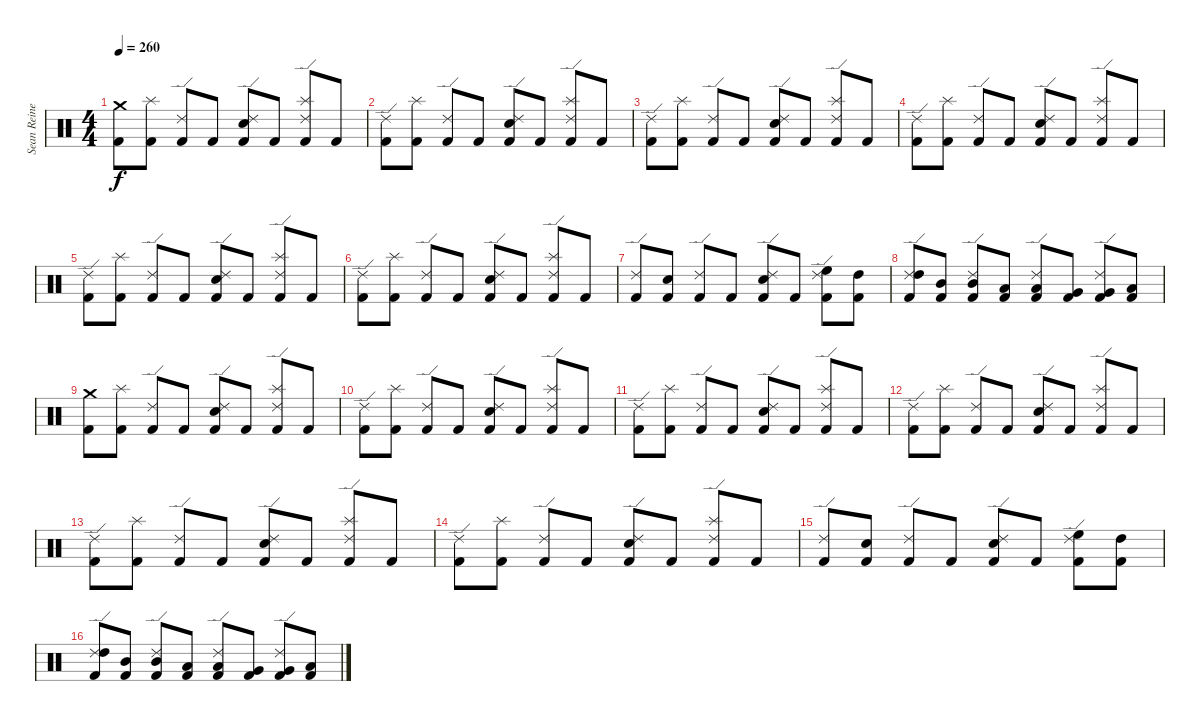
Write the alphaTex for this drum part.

\track ("Sean Reinert" "Sean Reine") {instrument percussion}
\staff {score}
\articulation defaults
\ts (4 4)
\tempo 260
\clef neutral
\ks c
("Crash medium (hit)" "Kick (hit) 2").8{dy f} ("Splash (hit)" "Kick (hit) 2").8 ("Ride (edge) 2" "Kick (hit) 2").8 "Kick (hit) 2".8 ("Ride (edge) 2" "Snare (hit) 2" "Kick (hit) 2").8 "Kick (hit) 2".8 ("Splash (hit)" "Ride (edge) 2" "Kick (hit) 2").8 "Kick (hit) 2".8 |
("Ride (edge) 2" "Kick (hit) 2").8 ("Splash (hit)" "Kick (hit) 2").8 ("Ride (edge) 2" "Kick (hit) 2").8 "Kick (hit) 2".8 ("Ride (edge) 2" "Snare (hit) 2" "Kick (hit) 2").8 "Kick (hit) 2".8 ("Splash (hit)" "Ride (edge) 2" "Kick (hit) 2").8 "Kick (hit) 2".8 |
("Ride (edge) 2" "Kick (hit) 2").8 ("Splash (hit)" "Kick (hit) 2").8 ("Ride (edge) 2" "Kick (hit) 2").8 "Kick (hit) 2".8 ("Ride (edge) 2" "Snare (hit) 2" "Kick (hit) 2").8 "Kick (hit) 2".8 ("Splash (hit)" "Ride (edge) 2" "Kick (hit) 2").8 "Kick (hit) 2".8 |
("Ride (edge) 2" "Kick (hit) 2").8 ("Splash (hit)" "Kick (hit) 2").8 ("Ride (edge) 2" "Kick (hit) 2").8 "Kick (hit) 2".8 ("Ride (edge) 2" "Snare (hit) 2" "Kick (hit) 2").8 "Kick (hit) 2".8 ("Splash (hit)" "Ride (edge) 2" "Kick (hit) 2").8 "Kick (hit) 2".8 |
("Ride (edge) 2" "Kick (hit) 2").8 ("Splash (hit)" "Kick (hit) 2").8 ("Ride (edge) 2" "Kick (hit) 2").8 "Kick (hit) 2".8 ("Ride (edge) 2" "Snare (hit) 2" "Kick (hit) 2").8 "Kick (hit) 2".8 ("Splash (hit)" "Ride (edge) 2" "Kick (hit) 2").8 "Kick (hit) 2".8 |
("Ride (edge) 2" "Kick (hit) 2").8 ("Splash (hit)" "Kick (hit) 2").8 ("Ride (edge) 2" "Kick (hit) 2").8 "Kick (hit) 2".8 ("Ride (edge) 2" "Snare (hit) 2" "Kick (hit) 2").8 "Kick (hit) 2".8 ("Splash (hit)" "Ride (edge) 2" "Kick (hit) 2").8 "Kick (hit) 2".8 |
("Ride (edge) 2" "Kick (hit) 2").8 ("Snare (hit) 2" "Kick (hit) 2").8 ("Ride (edge) 2" "Kick (hit) 2").8 "Kick (hit) 2".8 ("Ride (edge) 2" "Snare (hit) 2" "Kick (hit) 2").8 "Kick (hit) 2".8 ("Ride (edge) 2" "High Floor Tom (hit)" "Kick (hit) 2").8 ("High Tom (hit)" "Kick (hit) 2").8 |
("Ride (edge) 2" "High Tom (hit)" "Kick (hit) 2").8 ("Mid Tom (hit)" "Kick (hit) 2").8 ("Ride (edge) 2" "Mid Tom (hit)" "Kick (hit) 2").8 ("Low Tom (hit)" "Kick (hit) 2").8 ("Ride (edge) 2" "Low Tom (hit)" "Kick (hit) 2").8 ("Very Low Tom (hit)" "Kick (hit) 2").8 ("Ride (edge) 2" "Very Low Tom (hit)" "Kick (hit) 2").8 ("Low Floor Tom (hit)" "Kick (hit) 2").8 |
("Crash medium (hit)" "Kick (hit) 2").8 ("Splash (hit)" "Kick (hit) 2").8 ("Ride (edge) 2" "Kick (hit) 2").8 "Kick (hit) 2".8 ("Ride (edge) 2" "Snare (hit) 2" "Kick (hit) 2").8 "Kick (hit) 2".8 ("Splash (hit)" "Ride (edge) 2" "Kick (hit) 2").8 "Kick (hit) 2".8 |
("Ride (edge) 2" "Kick (hit) 2").8 ("Splash (hit)" "Kick (hit) 2").8 ("Ride (edge) 2" "Kick (hit) 2").8 "Kick (hit) 2".8 ("Ride (edge) 2" "Snare (hit) 2" "Kick (hit) 2").8 "Kick (hit) 2".8 ("Splash (hit)" "Ride (edge) 2" "Kick (hit) 2").8 "Kick (hit) 2".8 |
("Ride (edge) 2" "Kick (hit) 2").8 ("Splash (hit)" "Kick (hit) 2").8 ("Ride (edge) 2" "Kick (hit) 2").8 "Kick (hit) 2".8 ("Ride (edge) 2" "Snare (hit) 2" "Kick (hit) 2").8 "Kick (hit) 2".8 ("Splash (hit)" "Ride (edge) 2" "Kick (hit) 2").8 "Kick (hit) 2".8 |
("Ride (edge) 2" "Kick (hit) 2").8 ("Splash (hit)" "Kick (hit) 2").8 ("Ride (edge) 2" "Kick (hit) 2").8 "Kick (hit) 2".8 ("Ride (edge) 2" "Snare (hit) 2" "Kick (hit) 2").8 "Kick (hit) 2".8 ("Splash (hit)" "Ride (edge) 2" "Kick (hit) 2").8 "Kick (hit) 2".8 |
("Ride (edge) 2" "Kick (hit) 2").8 ("Splash (hit)" "Kick (hit) 2").8 ("Ride (edge) 2" "Kick (hit) 2").8 "Kick (hit) 2".8 ("Ride (edge) 2" "Snare (hit) 2" "Kick (hit) 2").8 "Kick (hit) 2".8 ("Splash (hit)" "Ride (edge) 2" "Kick (hit) 2").8 "Kick (hit) 2".8 |
("Ride (edge) 2" "Kick (hit) 2").8 ("Splash (hit)" "Kick (hit) 2").8 ("Ride (edge) 2" "Kick (hit) 2").8 "Kick (hit) 2".8 ("Ride (edge) 2" "Snare (hit) 2" "Kick (hit) 2").8 "Kick (hit) 2".8 ("Splash (hit)" "Ride (edge) 2" "Kick (hit) 2").8 "Kick (hit) 2".8 |
("Ride (edge) 2" "Kick (hit) 2").8 ("Snare (hit) 2" "Kick (hit) 2").8 ("Ride (edge) 2" "Kick (hit) 2").8 "Kick (hit) 2".8 ("Ride (edge) 2" "Snare (hit) 2" "Kick (hit) 2").8 "Kick (hit) 2".8 ("Ride (edge) 2" "High Floor Tom (hit)" "Kick (hit) 2").8 ("High Tom (hit)" "Kick (hit) 2").8 |
("Ride (edge) 2" "High Tom (hit)" "Kick (hit) 2").8 ("Mid Tom (hit)" "Kick (hit) 2").8 ("Ride (edge) 2" "Mid Tom (hit)" "Kick (hit) 2").8 ("Low Tom (hit)" "Kick (hit) 2").8 ("Ride (edge) 2" "Low Tom (hit)" "Kick (hit) 2").8 ("Very Low Tom (hit)" "Kick (hit) 2").8 ("Ride (edge) 2" "Very Low Tom (hit)" "Kick (hit) 2").8 ("Low Floor Tom (hit)" "Kick (hit) 2").8
